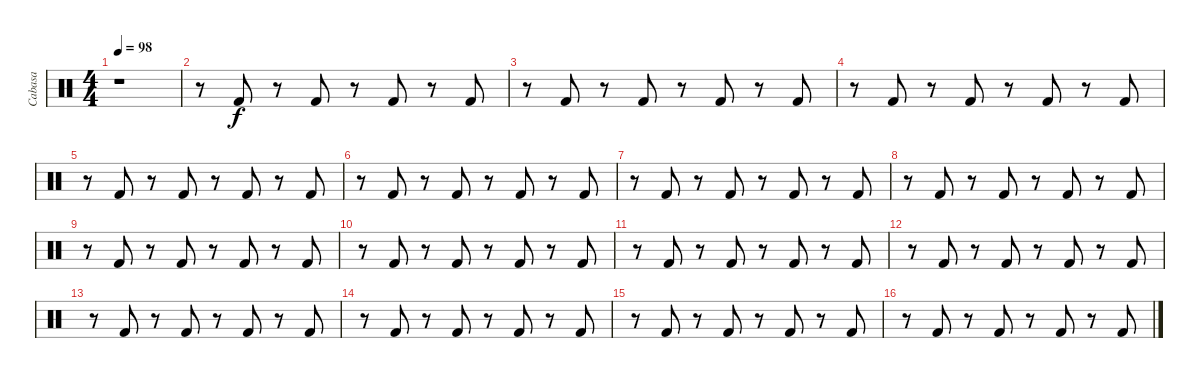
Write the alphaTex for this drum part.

\track ("Cabasa" "Cabasa") {instrument percussion}
\staff {score}
\articulation defaults
\ts (4 4)
\tempo 98
\clef neutral
\ks c
r.1{dy f} |
r.8 "Kick (hit) 2".8 r.8 "Kick (hit) 2".8 r.8 "Kick (hit) 2".8 r.8 "Kick (hit) 2".8 |
r.8 "Kick (hit) 2".8 r.8 "Kick (hit) 2".8 r.8 "Kick (hit) 2".8 r.8 "Kick (hit) 2".8 |
r.8 "Kick (hit) 2".8 r.8 "Kick (hit) 2".8 r.8 "Kick (hit) 2".8 r.8 "Kick (hit) 2".8 |
r.8 "Kick (hit) 2".8 r.8 "Kick (hit) 2".8 r.8 "Kick (hit) 2".8 r.8 "Kick (hit) 2".8 |
r.8 "Kick (hit) 2".8 r.8 "Kick (hit) 2".8 r.8 "Kick (hit) 2".8 r.8 "Kick (hit) 2".8 |
r.8 "Kick (hit) 2".8 r.8 "Kick (hit) 2".8 r.8 "Kick (hit) 2".8 r.8 "Kick (hit) 2".8 |
r.8 "Kick (hit) 2".8 r.8 "Kick (hit) 2".8 r.8 "Kick (hit) 2".8 r.8 "Kick (hit) 2".8 |
r.8 "Kick (hit) 2".8 r.8 "Kick (hit) 2".8 r.8 "Kick (hit) 2".8 r.8 "Kick (hit) 2".8 |
r.8 "Kick (hit) 2".8 r.8 "Kick (hit) 2".8 r.8 "Kick (hit) 2".8 r.8 "Kick (hit) 2".8 |
r.8 "Kick (hit) 2".8 r.8 "Kick (hit) 2".8 r.8 "Kick (hit) 2".8 r.8 "Kick (hit) 2".8 |
r.8 "Kick (hit) 2".8 r.8 "Kick (hit) 2".8 r.8 "Kick (hit) 2".8 r.8 "Kick (hit) 2".8 |
r.8 "Kick (hit) 2".8 r.8 "Kick (hit) 2".8 r.8 "Kick (hit) 2".8 r.8 "Kick (hit) 2".8 |
r.8 "Kick (hit) 2".8 r.8 "Kick (hit) 2".8 r.8 "Kick (hit) 2".8 r.8 "Kick (hit) 2".8 |
r.8 "Kick (hit) 2".8 r.8 "Kick (hit) 2".8 r.8 "Kick (hit) 2".8 r.8 "Kick (hit) 2".8 |
r.8 "Kick (hit) 2".8 r.8 "Kick (hit) 2".8 r.8 "Kick (hit) 2".8 r.8 "Kick (hit) 2".8
